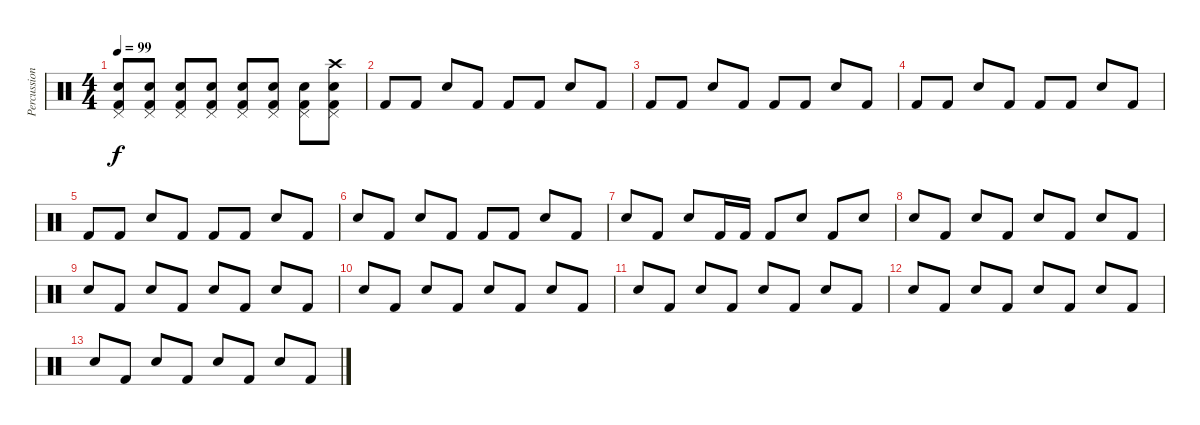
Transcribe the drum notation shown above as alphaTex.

\track ("Percussion" "Percussion") {instrument percussion}
\staff {score}
\articulation defaults
\ts (4 4)
\tempo 99
\clef neutral
\ks c
("Pedal Hi-Hat (hit)" "Electric Snare (hit)" "Kick (hit) 2").8{dy f} ("Pedal Hi-Hat (hit)" "Electric Snare (hit)" "Kick (hit) 2").8 ("Pedal Hi-Hat (hit)" "Electric Snare (hit)" "Kick (hit) 2").8 ("Pedal Hi-Hat (hit)" "Electric Snare (hit)" "Kick (hit) 2").8 ("Pedal Hi-Hat (hit)" "Electric Snare (hit)" "Kick (hit) 2").8 ("Pedal Hi-Hat (hit)" "Electric Snare (hit)" "Kick (hit) 2").8 ("Pedal Hi-Hat (hit)" "Electric Snare (hit)" "Kick (hit) 2").8 ("Pedal Hi-Hat (hit)" "Electric Snare (hit)" "Kick (hit) 2" "Crash high (hit)").8 |
"Kick (hit) 2".8 "Kick (hit) 2".8 "Electric Snare (hit)".8 "Kick (hit) 2".8 "Kick (hit) 2".8 "Kick (hit) 2".8 "Electric Snare (hit)".8 "Kick (hit) 2".8 |
"Kick (hit) 2".8 "Kick (hit) 2".8 "Electric Snare (hit)".8 "Kick (hit) 2".8 "Kick (hit) 2".8 "Kick (hit) 2".8 "Electric Snare (hit)".8 "Kick (hit) 2".8 |
"Kick (hit) 2".8 "Kick (hit) 2".8 "Electric Snare (hit)".8 "Kick (hit) 2".8 "Kick (hit) 2".8 "Kick (hit) 2".8 "Electric Snare (hit)".8 "Kick (hit) 2".8 |
"Kick (hit) 2".8 "Kick (hit) 2".8 "Electric Snare (hit)".8 "Kick (hit) 2".8 "Kick (hit) 2".8 "Kick (hit) 2".8 "Electric Snare (hit)".8 "Kick (hit) 2".8 |
"Electric Snare (hit)".8 "Kick (hit) 2".8 "Electric Snare (hit)".8 "Kick (hit) 2".8 "Kick (hit) 2".8 "Kick (hit) 2".8 "Electric Snare (hit)".8 "Kick (hit) 2".8 |
"Electric Snare (hit)".8 "Kick (hit) 2".8 "Electric Snare (hit)".8 "Kick (hit) 2".16 "Kick (hit) 2".16 "Kick (hit) 2".8 "Electric Snare (hit)".8 "Kick (hit) 2".8 "Electric Snare (hit)".8 |
"Electric Snare (hit)".8 "Kick (hit) 2".8 "Electric Snare (hit)".8 "Kick (hit) 2".8 "Electric Snare (hit)".8 "Kick (hit) 2".8 "Electric Snare (hit)".8 "Kick (hit) 2".8 |
"Electric Snare (hit)".8 "Kick (hit) 2".8 "Electric Snare (hit)".8 "Kick (hit) 2".8 "Electric Snare (hit)".8 "Kick (hit) 2".8 "Electric Snare (hit)".8 "Kick (hit) 2".8 |
"Electric Snare (hit)".8 "Kick (hit) 2".8 "Electric Snare (hit)".8 "Kick (hit) 2".8 "Electric Snare (hit)".8 "Kick (hit) 2".8 "Electric Snare (hit)".8 "Kick (hit) 2".8 |
"Electric Snare (hit)".8 "Kick (hit) 2".8 "Electric Snare (hit)".8 "Kick (hit) 2".8 "Electric Snare (hit)".8 "Kick (hit) 2".8 "Electric Snare (hit)".8 "Kick (hit) 2".8 |
"Electric Snare (hit)".8 "Kick (hit) 2".8 "Electric Snare (hit)".8 "Kick (hit) 2".8 "Electric Snare (hit)".8 "Kick (hit) 2".8 "Electric Snare (hit)".8 "Kick (hit) 2".8 |
"Electric Snare (hit)".8 "Kick (hit) 2".8 "Electric Snare (hit)".8 "Kick (hit) 2".8 "Electric Snare (hit)".8 "Kick (hit) 2".8 "Electric Snare (hit)".8 "Kick (hit) 2".8
